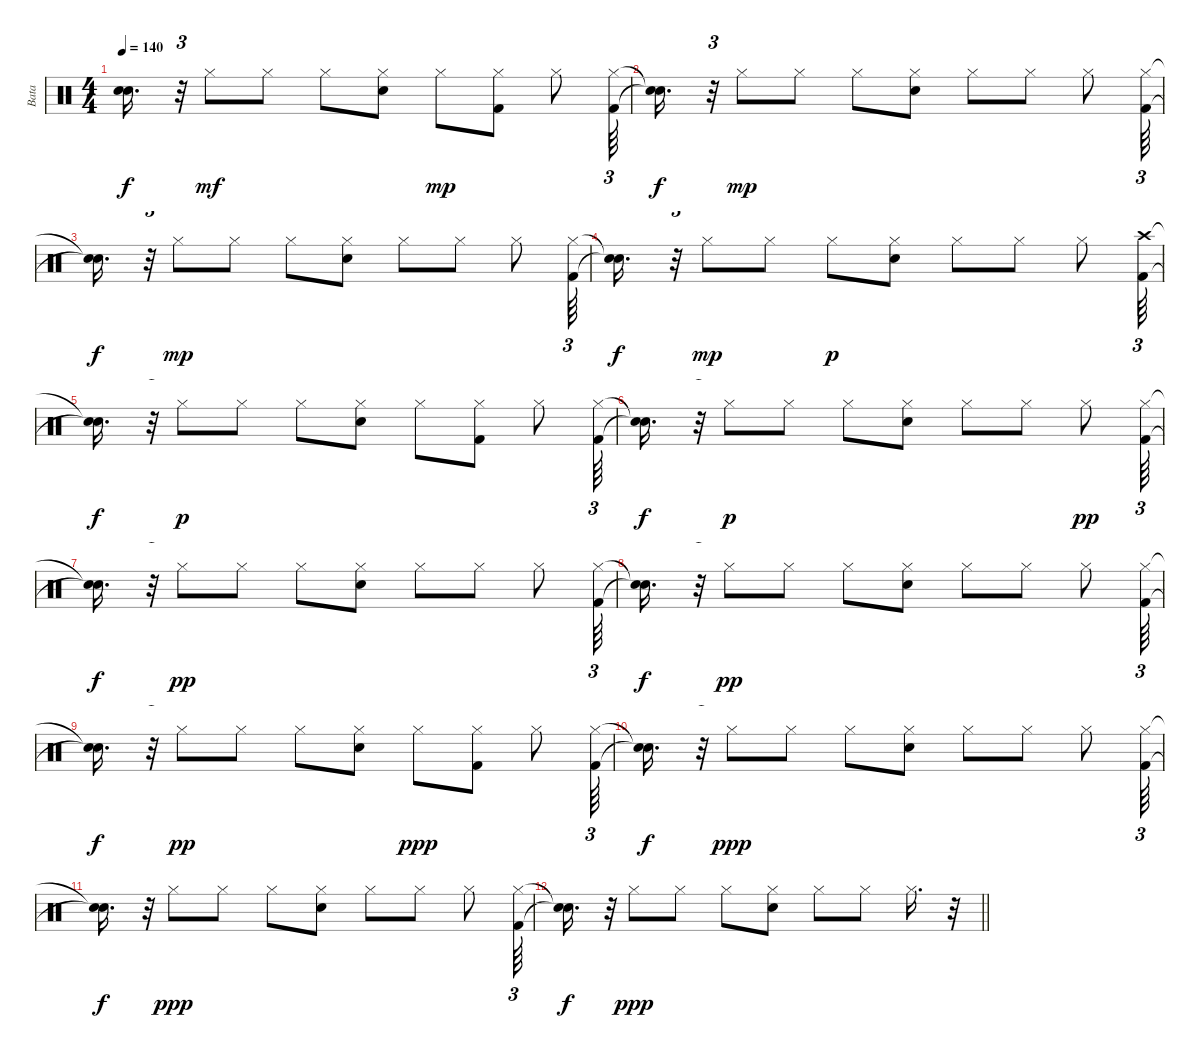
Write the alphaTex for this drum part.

\track ("Bata" "Bata") {instrument percussion}
\staff {score}
\articulation defaults
\ts (4 4)
\tempo 140
\clef neutral
\ks c
("Snare (hit)"{t} "Snare (hit)"{t}).16{d dy f} r.32{tu (3 2)} "Hi-Hat (closed)".8{dy mf} "Hi-Hat (closed)".8 "Hi-Hat (closed)".8 ("Snare (hit) 2" "Hi-Hat (closed)").8 "Hi-Hat (closed)".8{dy mp} ("Kick (hit) 2" "Hi-Hat (closed)").8 "Hi-Hat (closed)".8 ("Hi-Hat (closed)" "Kick (hit) 2").64{tu (3 2)} |
("Snare (hit)"{t} "Snare (hit)"{t}).16{d dy f} r.32{tu (3 2)} "Hi-Hat (closed)".8{dy mp} "Hi-Hat (closed)".8 "Hi-Hat (closed)".8 ("Hi-Hat (closed)" "Snare (hit) 2").8 "Hi-Hat (closed)".8 "Hi-Hat (closed)".8 "Hi-Hat (closed)".8 ("Kick (hit) 2" "Hi-Hat (closed)").64{tu (3 2)} |
("Snare (hit)"{t} "Snare (hit)"{t}).16{d dy f} r.32{tu (3 2)} "Hi-Hat (closed)".8{dy mp} "Hi-Hat (closed)".8 "Hi-Hat (closed)".8 ("Snare (hit) 2" "Hi-Hat (closed)").8 "Hi-Hat (closed)".8 "Hi-Hat (closed)".8 "Hi-Hat (closed)".8 ("Hi-Hat (closed)" "Kick (hit) 2").64{tu (3 2)} |
("Snare (hit)"{t} "Snare (hit)"{t}).16{d dy f} r.32{tu (3 2)} "Hi-Hat (closed)".8{dy mp} "Hi-Hat (closed)".8 "Hi-Hat (closed)".8{dy p} ("Snare (hit) 2" "Hi-Hat (closed)").8 "Hi-Hat (closed)".8 "Hi-Hat (closed)".8 "Hi-Hat (closed)".8 ("Kick (hit) 2" "Crash high (hit)").64{tu (3 2)} |
("Snare (hit)"{t} "Snare (hit)"{t}).16{d dy f} r.32{tu (3 2)} "Hi-Hat (closed)".8{dy p} "Hi-Hat (closed)".8 "Hi-Hat (closed)".8 ("Snare (hit) 2" "Hi-Hat (closed)").8 "Hi-Hat (closed)".8 ("Kick (hit) 2" "Hi-Hat (closed)").8 "Hi-Hat (closed)".8 ("Kick (hit) 2" "Hi-Hat (closed)").64{tu (3 2)} |
("Snare (hit)"{t} "Snare (hit)"{t}).16{d dy f} r.32{tu (3 2)} "Hi-Hat (closed)".8{dy p} "Hi-Hat (closed)".8 "Hi-Hat (closed)".8 ("Snare (hit) 2" "Hi-Hat (closed)").8 "Hi-Hat (closed)".8 "Hi-Hat (closed)".8 "Hi-Hat (closed)".8{dy pp} ("Kick (hit) 2" "Hi-Hat (closed)").64{tu (3 2)} |
("Snare (hit)"{t} "Snare (hit)"{t}).16{d dy f} r.32{tu (3 2)} "Hi-Hat (closed)".8{dy pp} "Hi-Hat (closed)".8 "Hi-Hat (closed)".8 ("Hi-Hat (closed)" "Snare (hit) 2").8 "Hi-Hat (closed)".8 "Hi-Hat (closed)".8 "Hi-Hat (closed)".8 ("Kick (hit) 2" "Hi-Hat (closed)").64{tu (3 2)} |
("Snare (hit)"{t} "Snare (hit)"{t}).16{d dy f} r.32{tu (3 2)} "Hi-Hat (closed)".8{dy pp} "Hi-Hat (closed)".8 "Hi-Hat (closed)".8 ("Hi-Hat (closed)" "Snare (hit) 2").8 "Hi-Hat (closed)".8 "Hi-Hat (closed)".8 "Hi-Hat (closed)".8 ("Kick (hit) 2" "Hi-Hat (closed)").64{tu (3 2)} |
("Snare (hit)"{t} "Snare (hit)"{t}).16{d dy f} r.32{tu (3 2)} "Hi-Hat (closed)".8{dy pp} "Hi-Hat (closed)".8 "Hi-Hat (closed)".8 ("Hi-Hat (closed)" "Snare (hit) 2").8 "Hi-Hat (closed)".8{dy ppp} ("Kick (hit) 2" "Hi-Hat (closed)").8 "Hi-Hat (closed)".8 ("Hi-Hat (closed)" "Kick (hit) 2").64{tu (3 2)} |
("Snare (hit)"{t} "Snare (hit)"{t}).16{d dy f} r.32{tu (3 2)} "Hi-Hat (closed)".8{dy ppp} "Hi-Hat (closed)".8 "Hi-Hat (closed)".8 ("Hi-Hat (closed)" "Snare (hit) 2").8 "Hi-Hat (closed)".8 "Hi-Hat (closed)".8 "Hi-Hat (closed)".8 ("Hi-Hat (closed)" "Kick (hit) 2").64{tu (3 2)} |
("Snare (hit)"{t} "Snare (hit)"{t}).16{d dy f} r.32{tu (3 2)} "Hi-Hat (closed)".8{dy ppp} "Hi-Hat (closed)".8 "Hi-Hat (closed)".8 ("Snare (hit) 2" "Hi-Hat (closed)").8 "Hi-Hat (closed)".8 "Hi-Hat (closed)".8 "Hi-Hat (closed)".8 ("Kick (hit) 2" "Hi-Hat (closed)").64{tu (3 2)} |
\barLineRight lightlight
("Snare (hit)"{t} "Snare (hit)"{t}).16{d dy f} r.32{tu (3 2)} "Hi-Hat (closed)".8{dy ppp} "Hi-Hat (closed)".8 "Hi-Hat (closed)".8 ("Snare (hit) 2" "Hi-Hat (closed)").8 "Hi-Hat (closed)".8 "Hi-Hat (closed)".8 "Hi-Hat (closed)".16{d} r.32
